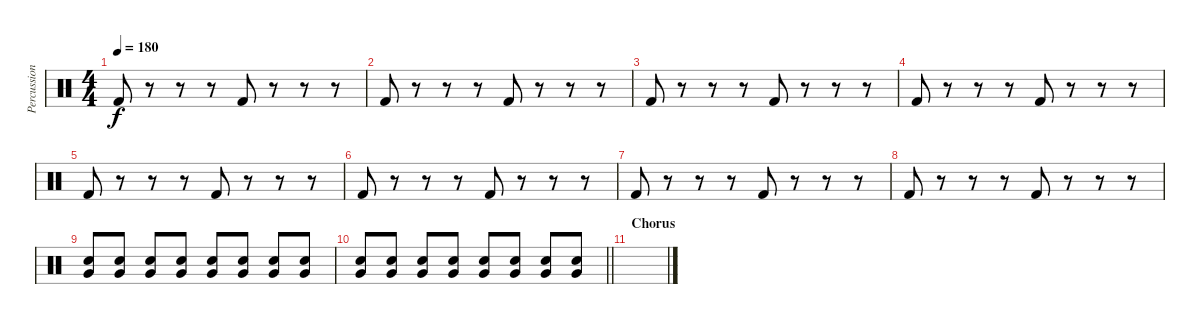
\track ("Percussion" "Percussion") {instrument percussion}
\staff {score}
\articulation defaults
\ts (4 4)
\tempo 180
\clef neutral
\ks c "Kick (hit) 2".8{dy f}
r.8 r.8 r.8 "Kick (hit) 2".8 r.8 r.8 r.8 |
"Kick (hit) 2".8 r.8 r.8 r.8 "Kick (hit) 2".8 r.8 r.8 r.8 |
"Kick (hit) 2".8 r.8 r.8 r.8 "Kick (hit) 2".8 r.8 r.8 r.8 |
"Kick (hit) 2".8 r.8 r.8 r.8 "Kick (hit) 2".8 r.8 r.8 r.8 |
"Kick (hit) 2".8 r.8 r.8 r.8 "Kick (hit) 2".8 r.8 r.8 r.8 |
"Kick (hit) 2".8 r.8 r.8 r.8 "Kick (hit) 2".8 r.8 r.8 r.8 |
"Kick (hit) 2".8 r.8 r.8 r.8 "Kick (hit) 2".8 r.8 r.8 r.8 |
"Kick (hit) 2".8 r.8 r.8 r.8 "Kick (hit) 2".8 r.8 r.8 r.8 |
("Very Low Tom (hit)" "Snare (hit) 2").8 ("Very Low Tom (hit)" "Snare (hit) 2").8 ("Very Low Tom (hit)" "Snare (hit) 2").8 ("Very Low Tom (hit)" "Snare (hit) 2").8 ("Very Low Tom (hit)" "Snare (hit) 2").8 ("Very Low Tom (hit)" "Snare (hit) 2").8 ("Very Low Tom (hit)" "Snare (hit) 2").8 ("Very Low Tom (hit)" "Snare (hit) 2").8 |
\barLineRight lightlight
("Very Low Tom (hit)" "Snare (hit) 2").8 ("Very Low Tom (hit)" "Snare (hit) 2").8 ("Very Low Tom (hit)" "Snare (hit) 2").8 ("Very Low Tom (hit)" "Snare (hit) 2").8 ("Very Low Tom (hit)" "Snare (hit) 2").8 ("Very Low Tom (hit)" "Snare (hit) 2").8 ("Very Low Tom (hit)" "Snare (hit) 2").8 ("Very Low Tom (hit)" "Snare (hit) 2").8 |
\section ("" "Chorus")
